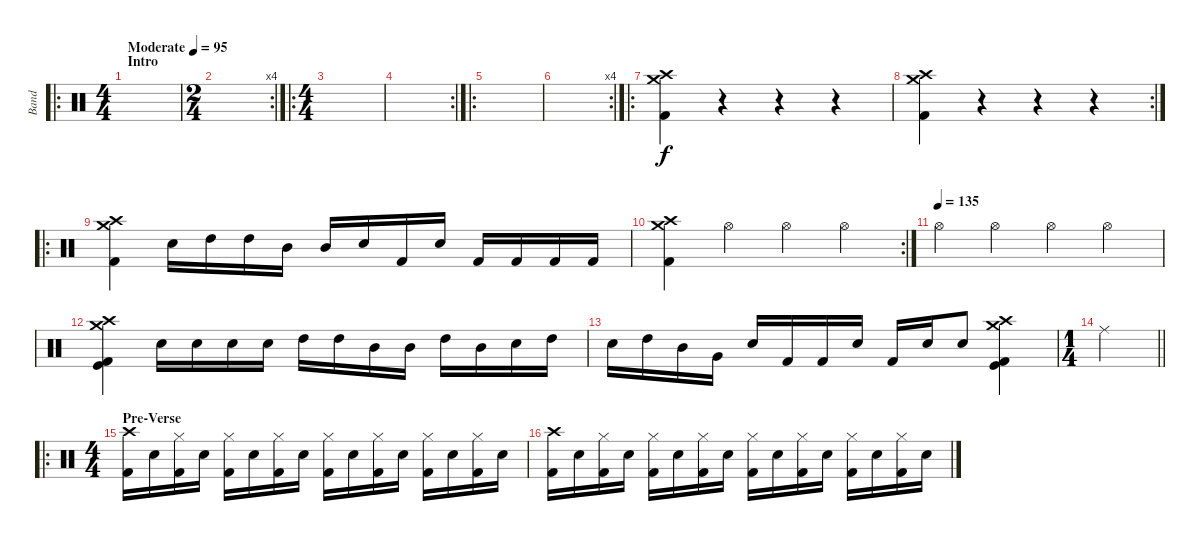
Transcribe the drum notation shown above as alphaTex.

\track ("Band" "Band") {instrument percussion}
\staff {score}
\articulation defaults
\ro
\ts (4 4)
\section ("" "Intro")
\tempo (95 "Moderate")
\clef neutral
\ks c
|
\rc 4
\ts (2 4)
|
\ro
\ts (4 4)
|
\rc 2
|
\ro
|
\rc 4
|
\ro
("Crash medium (hit)" "Crash high (hit)" "Kick (hit) 2").4 r.4 r.4 r.4 |
\rc 2
("Crash medium (hit)" "Crash high (hit)" "Kick (hit) 2").4 r.4 r.4 r.4 |
\ro
("Crash medium (hit)" "Crash high (hit)" "Kick (hit) 2").4 "Electric Snare (hit)".16 "High Tom (hit)".16 "High Tom (hit)".16 "Mid Tom (hit)".16 "Mid Tom (hit)".16 "Electric Snare (hit)".16 "Kick (hit) 2".16 "Electric Snare (hit)".16 "Kick (hit) 2".16 "Kick (hit) 2".16 "Kick (hit) 2".16 "Kick (hit) 2".16 |
\rc 2
("Crash medium (hit)" "Crash high (hit)" "Kick (hit) 2").4 "Hi-Hat (open)".4 "Hi-Hat (open)".4 "Hi-Hat (open)".4 |
\tempo (135)
"Hi-Hat (open)".4 "Hi-Hat (open)".4 "Hi-Hat (open)".4 "Hi-Hat (open)".4 |
("Crash medium (hit)" "Crash high (hit)" "Kick (hit)" "Kick (hit) 2").4 "Electric Snare (hit)".16 "Electric Snare (hit)".16 "Electric Snare (hit)".16 "Electric Snare (hit)".16 "High Tom (hit)".16 "High Tom (hit)".16 "Mid Tom (hit)".16 "Mid Tom (hit)".16 "High Tom (hit)".16 "Mid Tom (hit)".16 "Electric Snare (hit)".16 "High Tom (hit)".16 |
"Electric Snare (hit)".16 "High Tom (hit)".16 "Mid Tom (hit)".16 "Very Low Tom (hit)".16 "Electric Snare (hit)".16 "Kick (hit) 2".16 "Kick (hit) 2".16 "Electric Snare (hit)".16 "Kick (hit) 2".16 "Electric Snare (hit)".16 "Electric Snare (hit)".8 ("Crash medium (hit)" "Crash high (hit)" "Kick (hit)" "Kick (hit) 2").4 |
\ts (1 4)
\barLineRight lightlight "Ride (middle)".4
|
\ro
\ts (4 4)
\section ("" "Pre-Verse")
("Crash high (hit)" "Kick (hit) 2").16 "Electric Snare (hit)".16 ("Hi-Hat (closed)" "Kick (hit) 2").16 "Electric Snare (hit)".16 ("Hi-Hat (closed)" "Kick (hit) 2").16 "Electric Snare (hit)".16 ("Hi-Hat (closed)" "Kick (hit) 2").16 "Electric Snare (hit)".16 ("Hi-Hat (closed)" "Kick (hit) 2").16 "Electric Snare (hit)".16 ("Hi-Hat (closed)" "Kick (hit) 2").16 "Electric Snare (hit)".16 ("Hi-Hat (closed)" "Kick (hit) 2").16 "Electric Snare (hit)".16 ("Hi-Hat (closed)" "Kick (hit) 2").16 "Electric Snare (hit)".16 |
("Crash high (hit)" "Kick (hit) 2").16 "Electric Snare (hit)".16 ("Hi-Hat (closed)" "Kick (hit) 2").16 "Electric Snare (hit)".16 ("Hi-Hat (closed)" "Kick (hit) 2").16 "Electric Snare (hit)".16 ("Hi-Hat (closed)" "Kick (hit) 2").16 "Electric Snare (hit)".16 ("Hi-Hat (closed)" "Kick (hit) 2").16 "Electric Snare (hit)".16 ("Hi-Hat (closed)" "Kick (hit) 2").16 "Electric Snare (hit)".16 ("Hi-Hat (closed)" "Kick (hit) 2").16 "Electric Snare (hit)".16 ("Hi-Hat (closed)" "Kick (hit) 2").16 "Electric Snare (hit)".16
